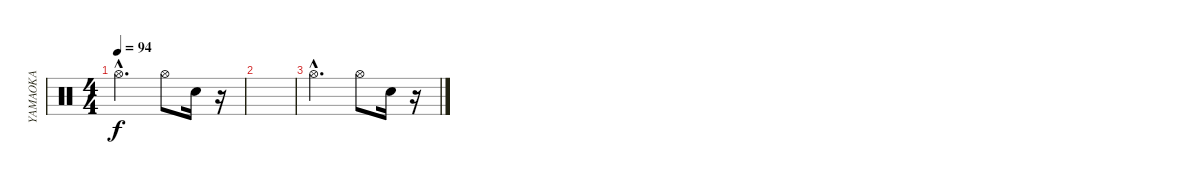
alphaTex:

\track ("YAMAOKA" "YAMAOKA") {instrument percussion}
\staff {score}
\articulation defaults
\ts (4 4)
\tempo 94
\clef neutral
\ks c "Hi-Hat (open)"{hac}.2{d dy f} "Hi-Hat (open)".8 "Snare (hit)"{x}.16
r.16 |
|
"Hi-Hat (open)"{hac}.2{d} "Hi-Hat (open)".8 "Snare (hit)"{x}.16 r.16
